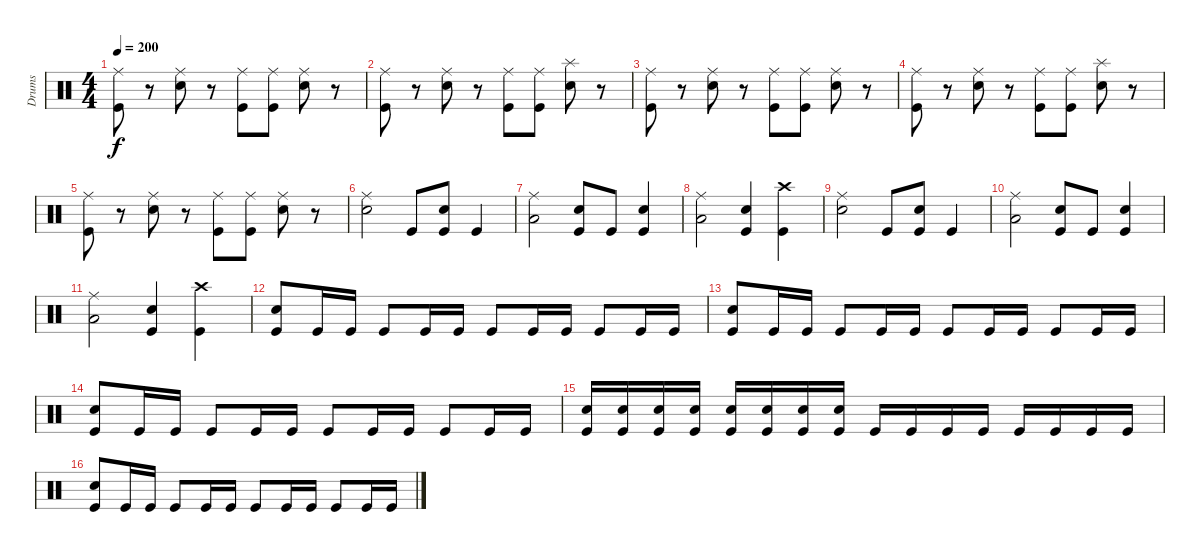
\track ("Drums" "Drums") {instrument percussion}
\staff {score}
\articulation defaults
\ts (4 4)
\tempo 200
\clef neutral
\ks c
("Ride (middle)" "Kick (hit)").8{dy f} r.8 ("Ride (middle)" "Snare (hit) 2").8 r.8 ("Ride (middle)" "Kick (hit)").8 ("Ride (middle)" "Kick (hit)").8 ("Ride (middle)" "Snare (hit) 2").8 r.8 |
("Ride (middle)" "Kick (hit)").8 r.8 ("Ride (middle)" "Snare (hit) 2").8 r.8 ("Ride (middle)" "Kick (hit)").8 ("Ride (middle)" "Kick (hit)").8 ("Splash (hit)" "Snare (hit) 2").8 r.8 |
("Ride (middle)" "Kick (hit)").8 r.8 ("Ride (middle)" "Snare (hit) 2").8 r.8 ("Ride (middle)" "Kick (hit)").8 ("Ride (middle)" "Kick (hit)").8 ("Ride (middle)" "Snare (hit) 2").8 r.8 |
("Ride (middle)" "Kick (hit)").8 r.8 ("Ride (middle)" "Snare (hit) 2").8 r.8 ("Ride (middle)" "Kick (hit)").8 ("Ride (middle)" "Kick (hit)").8 ("Splash (hit)" "Snare (hit) 2").8 r.8 |
("Ride (middle)" "Kick (hit)").8 r.8 ("Ride (middle)" "Snare (hit) 2").8 r.8 ("Ride (middle)" "Kick (hit)").8 ("Ride (middle)" "Kick (hit)").8 ("Ride (middle)" "Snare (hit) 2").8 r.8 |
("Ride (middle)" "Electric Snare (hit)").2 "Kick (hit)".8 ("Snare (hit) 2" "Kick (hit)").8 "Kick (hit)".4 |
("Ride (middle)" "Low Tom (hit)").2 ("Electric Snare (hit)" "Kick (hit)").8 "Kick (hit)".8 ("Electric Snare (hit)" "Kick (hit)").4 |
("Ride (middle)" "Low Floor Tom (hit)").2 ("Snare (hit) 2" "Kick (hit)").4 ("Crash high (hit)" "Kick (hit)").4 |
("Ride (middle)" "Electric Snare (hit)").2 "Kick (hit)".8 ("Snare (hit) 2" "Kick (hit)").8 "Kick (hit)".4 |
("Ride (middle)" "Low Tom (hit)").2 ("Electric Snare (hit)" "Kick (hit)").8 "Kick (hit)".8 ("Electric Snare (hit)" "Kick (hit)").4 |
("Ride (middle)" "Low Floor Tom (hit)").2 ("Snare (hit) 2" "Kick (hit)").4 ("Crash high (hit)" "Kick (hit)").4 |
("Electric Snare (hit)" "Kick (hit)").8 "Kick (hit)".16 "Kick (hit)".16 "Kick (hit)".8 "Kick (hit)".16 "Kick (hit)".16 "Kick (hit)".8 "Kick (hit)".16 "Kick (hit)".16 "Kick (hit)".8 "Kick (hit)".16 "Kick (hit)".16 |
("Snare (hit) 2" "Kick (hit)").8 "Kick (hit)".16 "Kick (hit)".16 "Kick (hit)".8 "Kick (hit)".16 "Kick (hit)".16 "Kick (hit)".8 "Kick (hit)".16 "Kick (hit)".16 "Kick (hit)".8 "Kick (hit)".16 "Kick (hit)".16 |
("Electric Snare (hit)" "Kick (hit)").8 "Kick (hit)".16 "Kick (hit)".16 "Kick (hit)".8 "Kick (hit)".16 "Kick (hit)".16 "Kick (hit)".8 "Kick (hit)".16 "Kick (hit)".16 "Kick (hit)".8 "Kick (hit)".16 "Kick (hit)".16 |
("Snare (hit) 2" "Kick (hit)").16 ("Snare (hit) 2" "Kick (hit)").16 ("Snare (hit) 2" "Kick (hit)").16 ("Snare (hit) 2" "Kick (hit)").16 ("Snare (hit) 2" "Kick (hit)").16 ("Snare (hit) 2" "Kick (hit)").16 ("Snare (hit) 2" "Kick (hit)").16 ("Snare (hit) 2" "Kick (hit)").16 "Kick (hit)".16 "Kick (hit)".16 "Kick (hit)".16 "Kick (hit)".16 "Kick (hit)".16 "Kick (hit)".16 "Kick (hit)".16 "Kick (hit)".16 |
("Electric Snare (hit)" "Kick (hit)").8 "Kick (hit)".16 "Kick (hit)".16 "Kick (hit)".8 "Kick (hit)".16 "Kick (hit)".16 "Kick (hit)".8 "Kick (hit)".16 "Kick (hit)".16 "Kick (hit)".8 "Kick (hit)".16 "Kick (hit)".16
